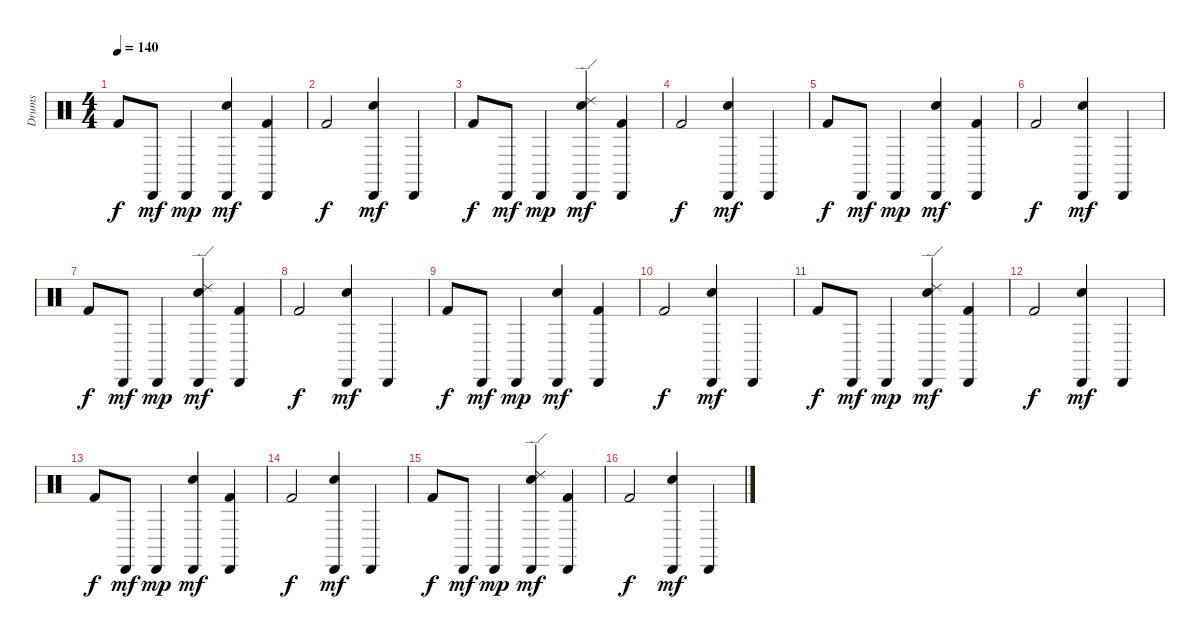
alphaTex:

\track ("Drums" "Drums") {instrument percussion}
\staff {score}
\articulation defaults
\ts (4 4)
\tempo 140
\clef neutral
\ks c "Kick (hit) 2".8{dy f} "Cabasa (hit)".8{dy mf} "Cabasa (hit)".4{dy mp}
("Snare (hit) 2" "Cabasa (hit)").4{dy mf} ("Kick (hit) 2" "Cabasa (hit)").4 |
"Kick (hit) 2".2{dy f} ("Snare (hit) 2" "Cabasa (hit)").4{dy mf} "Cabasa (hit)".4 |
"Kick (hit) 2".8{dy f} "Cabasa (hit)".8{dy mf} "Cabasa (hit)".4{dy mp} ("Snare (hit) 2" "Cabasa (hit)" "Ride (edge) 2").4{dy mf} ("Kick (hit) 2" "Cabasa (hit)").4 |
"Kick (hit) 2".2{dy f} ("Snare (hit) 2" "Cabasa (hit)").4{dy mf} "Cabasa (hit)".4 |
"Kick (hit) 2".8{dy f} "Cabasa (hit)".8{dy mf} "Cabasa (hit)".4{dy mp} ("Snare (hit) 2" "Cabasa (hit)").4{dy mf} ("Kick (hit) 2" "Cabasa (hit)").4 |
"Kick (hit) 2".2{dy f} ("Snare (hit) 2" "Cabasa (hit)").4{dy mf} "Cabasa (hit)".4 |
"Kick (hit) 2".8{dy f} "Cabasa (hit)".8{dy mf} "Cabasa (hit)".4{dy mp} ("Snare (hit) 2" "Cabasa (hit)" "Ride (edge) 2").4{dy mf} ("Kick (hit) 2" "Cabasa (hit)").4 |
"Kick (hit) 2".2{dy f} ("Snare (hit) 2" "Cabasa (hit)").4{dy mf} "Cabasa (hit)".4 |
"Kick (hit) 2".8{dy f} "Cabasa (hit)".8{dy mf} "Cabasa (hit)".4{dy mp} ("Snare (hit) 2" "Cabasa (hit)").4{dy mf} ("Kick (hit) 2" "Cabasa (hit)").4 |
"Kick (hit) 2".2{dy f} ("Snare (hit) 2" "Cabasa (hit)").4{dy mf} "Cabasa (hit)".4 |
"Kick (hit) 2".8{dy f} "Cabasa (hit)".8{dy mf} "Cabasa (hit)".4{dy mp} ("Snare (hit) 2" "Cabasa (hit)" "Ride (edge) 2").4{dy mf} ("Kick (hit) 2" "Cabasa (hit)").4 |
"Kick (hit) 2".2{dy f} ("Snare (hit) 2" "Cabasa (hit)").4{dy mf} "Cabasa (hit)".4 |
"Kick (hit) 2".8{dy f} "Cabasa (hit)".8{dy mf} "Cabasa (hit)".4{dy mp} ("Snare (hit) 2" "Cabasa (hit)").4{dy mf} ("Kick (hit) 2" "Cabasa (hit)").4 |
"Kick (hit) 2".2{dy f} ("Snare (hit) 2" "Cabasa (hit)").4{dy mf} "Cabasa (hit)".4 |
"Kick (hit) 2".8{dy f} "Cabasa (hit)".8{dy mf} "Cabasa (hit)".4{dy mp} ("Snare (hit) 2" "Cabasa (hit)" "Ride (edge) 2").4{dy mf} ("Kick (hit) 2" "Cabasa (hit)").4 |
"Kick (hit) 2".2{dy f} ("Snare (hit) 2" "Cabasa (hit)").4{dy mf} "Cabasa (hit)".4
